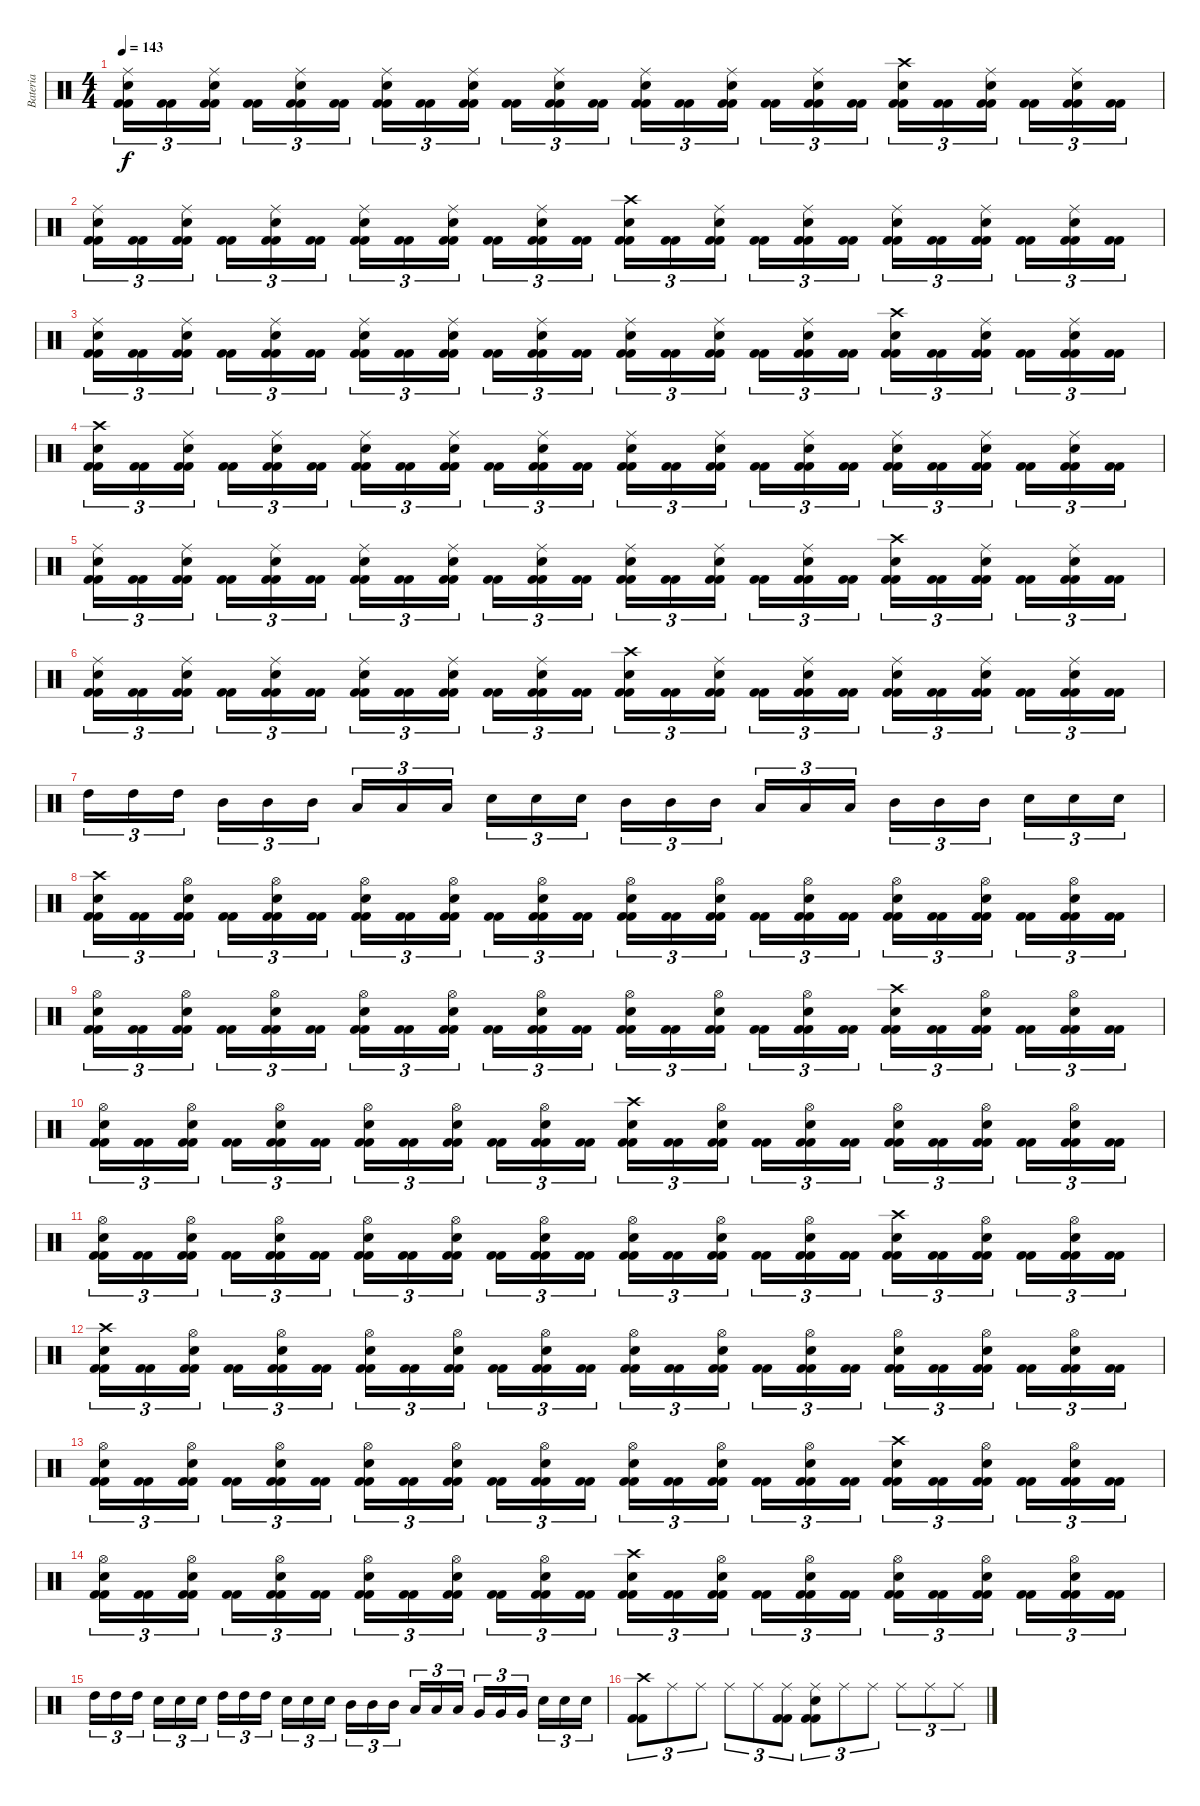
\track ("Bateria" "Bateria") {instrument percussion}
\staff {score}
\articulation defaults
\ts (4 4)
\tempo 143
\clef neutral
\ks c
("Kick (hit) 2" "Kick (hit) 2" "Snare (hit) 2" "Ride (middle)").16{tu (3 2) dy f} ("Kick (hit) 2" "Kick (hit) 2").16{tu (3 2)} ("Kick (hit) 2" "Kick (hit) 2" "Snare (hit) 2" "Ride (middle)").16{tu (3 2)} ("Kick (hit) 2" "Kick (hit) 2").16{tu (3 2)} ("Kick (hit) 2" "Kick (hit) 2" "Snare (hit) 2" "Ride (middle)").16{tu (3 2)} ("Kick (hit) 2" "Kick (hit) 2").16{tu (3 2)} ("Kick (hit) 2" "Kick (hit) 2" "Snare (hit) 2" "Ride (middle)").16{tu (3 2)} ("Kick (hit) 2" "Kick (hit) 2").16{tu (3 2)} ("Kick (hit) 2" "Kick (hit) 2" "Snare (hit) 2" "Ride (middle)").16{tu (3 2)} ("Kick (hit) 2" "Kick (hit) 2").16{tu (3 2)} ("Kick (hit) 2" "Kick (hit) 2" "Snare (hit) 2" "Ride (middle)").16{tu (3 2)} ("Kick (hit) 2" "Kick (hit) 2").16{tu (3 2)} ("Kick (hit) 2" "Kick (hit) 2" "Snare (hit) 2" "Ride (middle)").16{tu (3 2)} ("Kick (hit) 2" "Kick (hit) 2").16{tu (3 2)} ("Kick (hit) 2" "Kick (hit) 2" "Snare (hit) 2" "Ride (middle)").16{tu (3 2)} ("Kick (hit) 2" "Kick (hit) 2").16{tu (3 2)} ("Kick (hit) 2" "Kick (hit) 2" "Snare (hit) 2" "Ride (middle)").16{tu (3 2)} ("Kick (hit) 2" "Kick (hit) 2").16{tu (3 2)} ("Kick (hit) 2" "Kick (hit) 2" "Snare (hit) 2" "Crash high (hit)").16{tu (3 2)} ("Kick (hit) 2" "Kick (hit) 2").16{tu (3 2)} ("Kick (hit) 2" "Kick (hit) 2" "Snare (hit) 2" "Ride (middle)").16{tu (3 2)} ("Kick (hit) 2" "Kick (hit) 2").16{tu (3 2)} ("Kick (hit) 2" "Kick (hit) 2" "Snare (hit) 2" "Ride (middle)").16{tu (3 2)} ("Kick (hit) 2" "Kick (hit) 2").16{tu (3 2)} |
("Kick (hit) 2" "Kick (hit) 2" "Snare (hit) 2" "Ride (middle)").16{tu (3 2)} ("Kick (hit) 2" "Kick (hit) 2").16{tu (3 2)} ("Kick (hit) 2" "Kick (hit) 2" "Snare (hit) 2" "Ride (middle)").16{tu (3 2)} ("Kick (hit) 2" "Kick (hit) 2").16{tu (3 2)} ("Kick (hit) 2" "Kick (hit) 2" "Snare (hit) 2" "Ride (middle)").16{tu (3 2)} ("Kick (hit) 2" "Kick (hit) 2").16{tu (3 2)} ("Kick (hit) 2" "Kick (hit) 2" "Snare (hit) 2" "Ride (middle)").16{tu (3 2)} ("Kick (hit) 2" "Kick (hit) 2").16{tu (3 2)} ("Kick (hit) 2" "Kick (hit) 2" "Snare (hit) 2" "Ride (middle)").16{tu (3 2)} ("Kick (hit) 2" "Kick (hit) 2").16{tu (3 2)} ("Kick (hit) 2" "Kick (hit) 2" "Snare (hit) 2" "Ride (middle)").16{tu (3 2)} ("Kick (hit) 2" "Kick (hit) 2").16{tu (3 2)} ("Kick (hit) 2" "Kick (hit) 2" "Snare (hit) 2" "Crash high (hit)").16{tu (3 2)} ("Kick (hit) 2" "Kick (hit) 2").16{tu (3 2)} ("Kick (hit) 2" "Kick (hit) 2" "Snare (hit) 2" "Ride (middle)").16{tu (3 2)} ("Kick (hit) 2" "Kick (hit) 2").16{tu (3 2)} ("Kick (hit) 2" "Kick (hit) 2" "Snare (hit) 2" "Ride (middle)").16{tu (3 2)} ("Kick (hit) 2" "Kick (hit) 2").16{tu (3 2)} ("Kick (hit) 2" "Kick (hit) 2" "Snare (hit) 2" "Ride (middle)").16{tu (3 2)} ("Kick (hit) 2" "Kick (hit) 2").16{tu (3 2)} ("Kick (hit) 2" "Kick (hit) 2" "Snare (hit) 2" "Ride (middle)").16{tu (3 2)} ("Kick (hit) 2" "Kick (hit) 2").16{tu (3 2)} ("Kick (hit) 2" "Kick (hit) 2" "Snare (hit) 2" "Ride (middle)").16{tu (3 2)} ("Kick (hit) 2" "Kick (hit) 2").16{tu (3 2)} |
("Kick (hit) 2" "Kick (hit) 2" "Snare (hit) 2" "Ride (middle)").16{tu (3 2)} ("Kick (hit) 2" "Kick (hit) 2").16{tu (3 2)} ("Kick (hit) 2" "Kick (hit) 2" "Snare (hit) 2" "Ride (middle)").16{tu (3 2)} ("Kick (hit) 2" "Kick (hit) 2").16{tu (3 2)} ("Kick (hit) 2" "Kick (hit) 2" "Snare (hit) 2" "Ride (middle)").16{tu (3 2)} ("Kick (hit) 2" "Kick (hit) 2").16{tu (3 2)} ("Kick (hit) 2" "Kick (hit) 2" "Snare (hit) 2" "Ride (middle)").16{tu (3 2)} ("Kick (hit) 2" "Kick (hit) 2").16{tu (3 2)} ("Kick (hit) 2" "Kick (hit) 2" "Snare (hit) 2" "Ride (middle)").16{tu (3 2)} ("Kick (hit) 2" "Kick (hit) 2").16{tu (3 2)} ("Kick (hit) 2" "Kick (hit) 2" "Snare (hit) 2" "Ride (middle)").16{tu (3 2)} ("Kick (hit) 2" "Kick (hit) 2").16{tu (3 2)} ("Kick (hit) 2" "Kick (hit) 2" "Snare (hit) 2" "Ride (middle)").16{tu (3 2)} ("Kick (hit) 2" "Kick (hit) 2").16{tu (3 2)} ("Kick (hit) 2" "Kick (hit) 2" "Snare (hit) 2" "Ride (middle)").16{tu (3 2)} ("Kick (hit) 2" "Kick (hit) 2").16{tu (3 2)} ("Kick (hit) 2" "Kick (hit) 2" "Snare (hit) 2" "Ride (middle)").16{tu (3 2)} ("Kick (hit) 2" "Kick (hit) 2").16{tu (3 2)} ("Kick (hit) 2" "Kick (hit) 2" "Snare (hit) 2" "Crash high (hit)").16{tu (3 2)} ("Kick (hit) 2" "Kick (hit) 2").16{tu (3 2)} ("Kick (hit) 2" "Kick (hit) 2" "Snare (hit) 2" "Ride (middle)").16{tu (3 2)} ("Kick (hit) 2" "Kick (hit) 2").16{tu (3 2)} ("Kick (hit) 2" "Kick (hit) 2" "Snare (hit) 2" "Ride (middle)").16{tu (3 2)} ("Kick (hit) 2" "Kick (hit) 2").16{tu (3 2)} |
("Kick (hit) 2" "Kick (hit) 2" "Snare (hit) 2" "Crash high (hit)").16{tu (3 2)} ("Kick (hit) 2" "Kick (hit) 2").16{tu (3 2)} ("Kick (hit) 2" "Kick (hit) 2" "Snare (hit) 2" "Ride (middle)").16{tu (3 2)} ("Kick (hit) 2" "Kick (hit) 2").16{tu (3 2)} ("Kick (hit) 2" "Kick (hit) 2" "Snare (hit) 2" "Ride (middle)").16{tu (3 2)} ("Kick (hit) 2" "Kick (hit) 2").16{tu (3 2)} ("Kick (hit) 2" "Kick (hit) 2" "Snare (hit) 2" "Ride (middle)").16{tu (3 2)} ("Kick (hit) 2" "Kick (hit) 2").16{tu (3 2)} ("Kick (hit) 2" "Kick (hit) 2" "Snare (hit) 2" "Ride (middle)").16{tu (3 2)} ("Kick (hit) 2" "Kick (hit) 2").16{tu (3 2)} ("Kick (hit) 2" "Kick (hit) 2" "Snare (hit) 2" "Ride (middle)").16{tu (3 2)} ("Kick (hit) 2" "Kick (hit) 2").16{tu (3 2)} ("Kick (hit) 2" "Kick (hit) 2" "Snare (hit) 2" "Ride (middle)").16{tu (3 2)} ("Kick (hit) 2" "Kick (hit) 2").16{tu (3 2)} ("Kick (hit) 2" "Kick (hit) 2" "Snare (hit) 2" "Ride (middle)").16{tu (3 2)} ("Kick (hit) 2" "Kick (hit) 2").16{tu (3 2)} ("Kick (hit) 2" "Kick (hit) 2" "Snare (hit) 2" "Ride (middle)").16{tu (3 2)} ("Kick (hit) 2" "Kick (hit) 2").16{tu (3 2)} ("Kick (hit) 2" "Kick (hit) 2" "Snare (hit) 2" "Ride (middle)").16{tu (3 2)} ("Kick (hit) 2" "Kick (hit) 2").16{tu (3 2)} ("Kick (hit) 2" "Kick (hit) 2" "Snare (hit) 2" "Ride (middle)").16{tu (3 2)} ("Kick (hit) 2" "Kick (hit) 2").16{tu (3 2)} ("Kick (hit) 2" "Kick (hit) 2" "Snare (hit) 2" "Ride (middle)").16{tu (3 2)} ("Kick (hit) 2" "Kick (hit) 2").16{tu (3 2)} |
("Kick (hit) 2" "Kick (hit) 2" "Snare (hit) 2" "Ride (middle)").16{tu (3 2)} ("Kick (hit) 2" "Kick (hit) 2").16{tu (3 2)} ("Kick (hit) 2" "Kick (hit) 2" "Snare (hit) 2" "Ride (middle)").16{tu (3 2)} ("Kick (hit) 2" "Kick (hit) 2").16{tu (3 2)} ("Kick (hit) 2" "Kick (hit) 2" "Snare (hit) 2" "Ride (middle)").16{tu (3 2)} ("Kick (hit) 2" "Kick (hit) 2").16{tu (3 2)} ("Kick (hit) 2" "Kick (hit) 2" "Snare (hit) 2" "Ride (middle)").16{tu (3 2)} ("Kick (hit) 2" "Kick (hit) 2").16{tu (3 2)} ("Kick (hit) 2" "Kick (hit) 2" "Snare (hit) 2" "Ride (middle)").16{tu (3 2)} ("Kick (hit) 2" "Kick (hit) 2").16{tu (3 2)} ("Kick (hit) 2" "Kick (hit) 2" "Snare (hit) 2" "Ride (middle)").16{tu (3 2)} ("Kick (hit) 2" "Kick (hit) 2").16{tu (3 2)} ("Kick (hit) 2" "Kick (hit) 2" "Snare (hit) 2" "Ride (middle)").16{tu (3 2)} ("Kick (hit) 2" "Kick (hit) 2").16{tu (3 2)} ("Kick (hit) 2" "Kick (hit) 2" "Snare (hit) 2" "Ride (middle)").16{tu (3 2)} ("Kick (hit) 2" "Kick (hit) 2").16{tu (3 2)} ("Kick (hit) 2" "Kick (hit) 2" "Snare (hit) 2" "Ride (middle)").16{tu (3 2)} ("Kick (hit) 2" "Kick (hit) 2").16{tu (3 2)} ("Kick (hit) 2" "Kick (hit) 2" "Snare (hit) 2" "Crash high (hit)").16{tu (3 2)} ("Kick (hit) 2" "Kick (hit) 2").16{tu (3 2)} ("Kick (hit) 2" "Kick (hit) 2" "Snare (hit) 2" "Ride (middle)").16{tu (3 2)} ("Kick (hit) 2" "Kick (hit) 2").16{tu (3 2)} ("Kick (hit) 2" "Kick (hit) 2" "Snare (hit) 2" "Ride (middle)").16{tu (3 2)} ("Kick (hit) 2" "Kick (hit) 2").16{tu (3 2)} |
("Kick (hit) 2" "Kick (hit) 2" "Snare (hit) 2" "Ride (middle)").16{tu (3 2)} ("Kick (hit) 2" "Kick (hit) 2").16{tu (3 2)} ("Kick (hit) 2" "Kick (hit) 2" "Snare (hit) 2" "Ride (middle)").16{tu (3 2)} ("Kick (hit) 2" "Kick (hit) 2").16{tu (3 2)} ("Kick (hit) 2" "Kick (hit) 2" "Snare (hit) 2" "Ride (middle)").16{tu (3 2)} ("Kick (hit) 2" "Kick (hit) 2").16{tu (3 2)} ("Kick (hit) 2" "Kick (hit) 2" "Snare (hit) 2" "Ride (middle)").16{tu (3 2)} ("Kick (hit) 2" "Kick (hit) 2").16{tu (3 2)} ("Kick (hit) 2" "Kick (hit) 2" "Snare (hit) 2" "Ride (middle)").16{tu (3 2)} ("Kick (hit) 2" "Kick (hit) 2").16{tu (3 2)} ("Kick (hit) 2" "Kick (hit) 2" "Snare (hit) 2" "Ride (middle)").16{tu (3 2)} ("Kick (hit) 2" "Kick (hit) 2").16{tu (3 2)} ("Kick (hit) 2" "Kick (hit) 2" "Snare (hit) 2" "Crash high (hit)").16{tu (3 2)} ("Kick (hit) 2" "Kick (hit) 2").16{tu (3 2)} ("Kick (hit) 2" "Kick (hit) 2" "Snare (hit) 2" "Ride (middle)").16{tu (3 2)} ("Kick (hit) 2" "Kick (hit) 2").16{tu (3 2)} ("Kick (hit) 2" "Kick (hit) 2" "Snare (hit) 2" "Ride (middle)").16{tu (3 2)} ("Kick (hit) 2" "Kick (hit) 2").16{tu (3 2)} ("Kick (hit) 2" "Kick (hit) 2" "Snare (hit) 2" "Ride (middle)").16{tu (3 2)} ("Kick (hit) 2" "Kick (hit) 2").16{tu (3 2)} ("Kick (hit) 2" "Kick (hit) 2" "Snare (hit) 2" "Ride (middle)").16{tu (3 2)} ("Kick (hit) 2" "Kick (hit) 2").16{tu (3 2)} ("Kick (hit) 2" "Kick (hit) 2" "Snare (hit) 2" "Ride (middle)").16{tu (3 2)} ("Kick (hit) 2" "Kick (hit) 2").16{tu (3 2)} |
"High Tom (hit)".16{tu (3 2)} "High Tom (hit)".16{tu (3 2)} "High Tom (hit)".16{tu (3 2)} "Mid Tom (hit)".16{tu (3 2)} "Mid Tom (hit)".16{tu (3 2)} "Mid Tom (hit)".16{tu (3 2)} "Low Tom (hit)".16{tu (3 2)} "Low Tom (hit)".16{tu (3 2)} "Low Tom (hit)".16{tu (3 2)} "Snare (hit) 2".16{tu (3 2)} "Snare (hit) 2".16{tu (3 2)} "Snare (hit) 2".16{tu (3 2)} "Mid Tom (hit)".16{tu (3 2)} "Mid Tom (hit)".16{tu (3 2)} "Mid Tom (hit)".16{tu (3 2)} "Low Tom (hit)".16{tu (3 2)} "Low Tom (hit)".16{tu (3 2)} "Low Tom (hit)".16{tu (3 2)} "Mid Tom (hit)".16{tu (3 2)} "Mid Tom (hit)".16{tu (3 2)} "Mid Tom (hit)".16{tu (3 2)} "Snare (hit) 2".16{tu (3 2)} "Snare (hit) 2".16{tu (3 2)} "Snare (hit) 2".16{tu (3 2)} |
("Kick (hit) 2" "Kick (hit) 2" "Snare (hit) 2" "Crash high (hit)").16{tu (3 2)} ("Kick (hit) 2" "Kick (hit) 2").16{tu (3 2)} ("Kick (hit) 2" "Kick (hit) 2" "Snare (hit) 2" "Hi-Hat (open)").16{tu (3 2)} ("Kick (hit) 2" "Kick (hit) 2").16{tu (3 2)} ("Kick (hit) 2" "Kick (hit) 2" "Snare (hit) 2" "Hi-Hat (open)").16{tu (3 2)} ("Kick (hit) 2" "Kick (hit) 2").16{tu (3 2)} ("Kick (hit) 2" "Kick (hit) 2" "Snare (hit) 2" "Hi-Hat (open)").16{tu (3 2)} ("Kick (hit) 2" "Kick (hit) 2").16{tu (3 2)} ("Kick (hit) 2" "Kick (hit) 2" "Snare (hit) 2" "Hi-Hat (open)").16{tu (3 2)} ("Kick (hit) 2" "Kick (hit) 2").16{tu (3 2)} ("Kick (hit) 2" "Kick (hit) 2" "Snare (hit) 2" "Hi-Hat (open)").16{tu (3 2)} ("Kick (hit) 2" "Kick (hit) 2").16{tu (3 2)} ("Kick (hit) 2" "Kick (hit) 2" "Snare (hit) 2" "Hi-Hat (open)").16{tu (3 2)} ("Kick (hit) 2" "Kick (hit) 2").16{tu (3 2)} ("Kick (hit) 2" "Kick (hit) 2" "Snare (hit) 2" "Hi-Hat (open)").16{tu (3 2)} ("Kick (hit) 2" "Kick (hit) 2").16{tu (3 2)} ("Kick (hit) 2" "Kick (hit) 2" "Snare (hit) 2" "Hi-Hat (open)").16{tu (3 2)} ("Kick (hit) 2" "Kick (hit) 2").16{tu (3 2)} ("Kick (hit) 2" "Kick (hit) 2" "Snare (hit) 2" "Hi-Hat (open)").16{tu (3 2)} ("Kick (hit) 2" "Kick (hit) 2").16{tu (3 2)} ("Kick (hit) 2" "Kick (hit) 2" "Snare (hit) 2" "Hi-Hat (open)").16{tu (3 2)} ("Kick (hit) 2" "Kick (hit) 2").16{tu (3 2)} ("Kick (hit) 2" "Kick (hit) 2" "Snare (hit) 2" "Hi-Hat (open)").16{tu (3 2)} ("Kick (hit) 2" "Kick (hit) 2").16{tu (3 2)} |
("Kick (hit) 2" "Kick (hit) 2" "Snare (hit) 2" "Hi-Hat (open)").16{tu (3 2)} ("Kick (hit) 2" "Kick (hit) 2").16{tu (3 2)} ("Kick (hit) 2" "Kick (hit) 2" "Snare (hit) 2" "Hi-Hat (open)").16{tu (3 2)} ("Kick (hit) 2" "Kick (hit) 2").16{tu (3 2)} ("Kick (hit) 2" "Kick (hit) 2" "Snare (hit) 2" "Hi-Hat (open)").16{tu (3 2)} ("Kick (hit) 2" "Kick (hit) 2").16{tu (3 2)} ("Kick (hit) 2" "Kick (hit) 2" "Snare (hit) 2" "Hi-Hat (open)").16{tu (3 2)} ("Kick (hit) 2" "Kick (hit) 2").16{tu (3 2)} ("Kick (hit) 2" "Kick (hit) 2" "Snare (hit) 2" "Hi-Hat (open)").16{tu (3 2)} ("Kick (hit) 2" "Kick (hit) 2").16{tu (3 2)} ("Kick (hit) 2" "Kick (hit) 2" "Snare (hit) 2" "Hi-Hat (open)").16{tu (3 2)} ("Kick (hit) 2" "Kick (hit) 2").16{tu (3 2)} ("Kick (hit) 2" "Kick (hit) 2" "Snare (hit) 2" "Hi-Hat (open)").16{tu (3 2)} ("Kick (hit) 2" "Kick (hit) 2").16{tu (3 2)} ("Kick (hit) 2" "Kick (hit) 2" "Snare (hit) 2" "Hi-Hat (open)").16{tu (3 2)} ("Kick (hit) 2" "Kick (hit) 2").16{tu (3 2)} ("Kick (hit) 2" "Kick (hit) 2" "Snare (hit) 2" "Hi-Hat (open)").16{tu (3 2)} ("Kick (hit) 2" "Kick (hit) 2").16{tu (3 2)} ("Kick (hit) 2" "Kick (hit) 2" "Snare (hit) 2" "Crash high (hit)").16{tu (3 2)} ("Kick (hit) 2" "Kick (hit) 2").16{tu (3 2)} ("Kick (hit) 2" "Kick (hit) 2" "Snare (hit) 2" "Hi-Hat (open)").16{tu (3 2)} ("Kick (hit) 2" "Kick (hit) 2").16{tu (3 2)} ("Kick (hit) 2" "Kick (hit) 2" "Snare (hit) 2" "Hi-Hat (open)").16{tu (3 2)} ("Kick (hit) 2" "Kick (hit) 2").16{tu (3 2)} |
("Kick (hit) 2" "Kick (hit) 2" "Snare (hit) 2" "Hi-Hat (open)").16{tu (3 2)} ("Kick (hit) 2" "Kick (hit) 2").16{tu (3 2)} ("Kick (hit) 2" "Kick (hit) 2" "Snare (hit) 2" "Hi-Hat (open)").16{tu (3 2)} ("Kick (hit) 2" "Kick (hit) 2").16{tu (3 2)} ("Kick (hit) 2" "Kick (hit) 2" "Snare (hit) 2" "Hi-Hat (open)").16{tu (3 2)} ("Kick (hit) 2" "Kick (hit) 2").16{tu (3 2)} ("Kick (hit) 2" "Kick (hit) 2" "Snare (hit) 2" "Hi-Hat (open)").16{tu (3 2)} ("Kick (hit) 2" "Kick (hit) 2").16{tu (3 2)} ("Kick (hit) 2" "Kick (hit) 2" "Snare (hit) 2" "Hi-Hat (open)").16{tu (3 2)} ("Kick (hit) 2" "Kick (hit) 2").16{tu (3 2)} ("Kick (hit) 2" "Kick (hit) 2" "Snare (hit) 2" "Hi-Hat (open)").16{tu (3 2)} ("Kick (hit) 2" "Kick (hit) 2").16{tu (3 2)} ("Kick (hit) 2" "Kick (hit) 2" "Snare (hit) 2" "Crash high (hit)").16{tu (3 2)} ("Kick (hit) 2" "Kick (hit) 2").16{tu (3 2)} ("Kick (hit) 2" "Kick (hit) 2" "Snare (hit) 2" "Hi-Hat (open)").16{tu (3 2)} ("Kick (hit) 2" "Kick (hit) 2").16{tu (3 2)} ("Kick (hit) 2" "Kick (hit) 2" "Snare (hit) 2" "Hi-Hat (open)").16{tu (3 2)} ("Kick (hit) 2" "Kick (hit) 2").16{tu (3 2)} ("Kick (hit) 2" "Kick (hit) 2" "Snare (hit) 2" "Hi-Hat (open)").16{tu (3 2)} ("Kick (hit) 2" "Kick (hit) 2").16{tu (3 2)} ("Kick (hit) 2" "Kick (hit) 2" "Snare (hit) 2" "Hi-Hat (open)").16{tu (3 2)} ("Kick (hit) 2" "Kick (hit) 2").16{tu (3 2)} ("Kick (hit) 2" "Kick (hit) 2" "Snare (hit) 2" "Hi-Hat (open)").16{tu (3 2)} ("Kick (hit) 2" "Kick (hit) 2").16{tu (3 2)} |
("Kick (hit) 2" "Kick (hit) 2" "Snare (hit) 2" "Hi-Hat (open)").16{tu (3 2)} ("Kick (hit) 2" "Kick (hit) 2").16{tu (3 2)} ("Kick (hit) 2" "Kick (hit) 2" "Snare (hit) 2" "Hi-Hat (open)").16{tu (3 2)} ("Kick (hit) 2" "Kick (hit) 2").16{tu (3 2)} ("Kick (hit) 2" "Kick (hit) 2" "Snare (hit) 2" "Hi-Hat (open)").16{tu (3 2)} ("Kick (hit) 2" "Kick (hit) 2").16{tu (3 2)} ("Kick (hit) 2" "Kick (hit) 2" "Snare (hit) 2" "Hi-Hat (open)").16{tu (3 2)} ("Kick (hit) 2" "Kick (hit) 2").16{tu (3 2)} ("Kick (hit) 2" "Kick (hit) 2" "Snare (hit) 2" "Hi-Hat (open)").16{tu (3 2)} ("Kick (hit) 2" "Kick (hit) 2").16{tu (3 2)} ("Kick (hit) 2" "Kick (hit) 2" "Snare (hit) 2" "Hi-Hat (open)").16{tu (3 2)} ("Kick (hit) 2" "Kick (hit) 2").16{tu (3 2)} ("Kick (hit) 2" "Kick (hit) 2" "Snare (hit) 2" "Hi-Hat (open)").16{tu (3 2)} ("Kick (hit) 2" "Kick (hit) 2").16{tu (3 2)} ("Kick (hit) 2" "Kick (hit) 2" "Snare (hit) 2" "Hi-Hat (open)").16{tu (3 2)} ("Kick (hit) 2" "Kick (hit) 2").16{tu (3 2)} ("Kick (hit) 2" "Kick (hit) 2" "Snare (hit) 2" "Hi-Hat (open)").16{tu (3 2)} ("Kick (hit) 2" "Kick (hit) 2").16{tu (3 2)} ("Kick (hit) 2" "Kick (hit) 2" "Snare (hit) 2" "Crash high (hit)").16{tu (3 2)} ("Kick (hit) 2" "Kick (hit) 2").16{tu (3 2)} ("Kick (hit) 2" "Kick (hit) 2" "Snare (hit) 2" "Hi-Hat (open)").16{tu (3 2)} ("Kick (hit) 2" "Kick (hit) 2").16{tu (3 2)} ("Kick (hit) 2" "Kick (hit) 2" "Snare (hit) 2" "Hi-Hat (open)").16{tu (3 2)} ("Kick (hit) 2" "Kick (hit) 2").16{tu (3 2)} |
("Kick (hit) 2" "Kick (hit) 2" "Snare (hit) 2" "Crash high (hit)").16{tu (3 2)} ("Kick (hit) 2" "Kick (hit) 2").16{tu (3 2)} ("Kick (hit) 2" "Kick (hit) 2" "Snare (hit) 2" "Hi-Hat (open)").16{tu (3 2)} ("Kick (hit) 2" "Kick (hit) 2").16{tu (3 2)} ("Kick (hit) 2" "Kick (hit) 2" "Snare (hit) 2" "Hi-Hat (open)").16{tu (3 2)} ("Kick (hit) 2" "Kick (hit) 2").16{tu (3 2)} ("Kick (hit) 2" "Kick (hit) 2" "Snare (hit) 2" "Hi-Hat (open)").16{tu (3 2)} ("Kick (hit) 2" "Kick (hit) 2").16{tu (3 2)} ("Kick (hit) 2" "Kick (hit) 2" "Snare (hit) 2" "Hi-Hat (open)").16{tu (3 2)} ("Kick (hit) 2" "Kick (hit) 2").16{tu (3 2)} ("Kick (hit) 2" "Kick (hit) 2" "Snare (hit) 2" "Hi-Hat (open)").16{tu (3 2)} ("Kick (hit) 2" "Kick (hit) 2").16{tu (3 2)} ("Kick (hit) 2" "Kick (hit) 2" "Snare (hit) 2" "Hi-Hat (open)").16{tu (3 2)} ("Kick (hit) 2" "Kick (hit) 2").16{tu (3 2)} ("Kick (hit) 2" "Kick (hit) 2" "Snare (hit) 2" "Hi-Hat (open)").16{tu (3 2)} ("Kick (hit) 2" "Kick (hit) 2").16{tu (3 2)} ("Kick (hit) 2" "Kick (hit) 2" "Snare (hit) 2" "Hi-Hat (open)").16{tu (3 2)} ("Kick (hit) 2" "Kick (hit) 2").16{tu (3 2)} ("Kick (hit) 2" "Kick (hit) 2" "Snare (hit) 2" "Hi-Hat (open)").16{tu (3 2)} ("Kick (hit) 2" "Kick (hit) 2").16{tu (3 2)} ("Kick (hit) 2" "Kick (hit) 2" "Snare (hit) 2" "Hi-Hat (open)").16{tu (3 2)} ("Kick (hit) 2" "Kick (hit) 2").16{tu (3 2)} ("Kick (hit) 2" "Kick (hit) 2" "Snare (hit) 2" "Hi-Hat (open)").16{tu (3 2)} ("Kick (hit) 2" "Kick (hit) 2").16{tu (3 2)} |
("Kick (hit) 2" "Kick (hit) 2" "Snare (hit) 2" "Hi-Hat (open)").16{tu (3 2)} ("Kick (hit) 2" "Kick (hit) 2").16{tu (3 2)} ("Kick (hit) 2" "Kick (hit) 2" "Snare (hit) 2" "Hi-Hat (open)").16{tu (3 2)} ("Kick (hit) 2" "Kick (hit) 2").16{tu (3 2)} ("Kick (hit) 2" "Kick (hit) 2" "Snare (hit) 2" "Hi-Hat (open)").16{tu (3 2)} ("Kick (hit) 2" "Kick (hit) 2").16{tu (3 2)} ("Kick (hit) 2" "Kick (hit) 2" "Snare (hit) 2" "Hi-Hat (open)").16{tu (3 2)} ("Kick (hit) 2" "Kick (hit) 2").16{tu (3 2)} ("Kick (hit) 2" "Kick (hit) 2" "Snare (hit) 2" "Hi-Hat (open)").16{tu (3 2)} ("Kick (hit) 2" "Kick (hit) 2").16{tu (3 2)} ("Kick (hit) 2" "Kick (hit) 2" "Snare (hit) 2" "Hi-Hat (open)").16{tu (3 2)} ("Kick (hit) 2" "Kick (hit) 2").16{tu (3 2)} ("Kick (hit) 2" "Kick (hit) 2" "Snare (hit) 2" "Hi-Hat (open)").16{tu (3 2)} ("Kick (hit) 2" "Kick (hit) 2").16{tu (3 2)} ("Kick (hit) 2" "Kick (hit) 2" "Snare (hit) 2" "Hi-Hat (open)").16{tu (3 2)} ("Kick (hit) 2" "Kick (hit) 2").16{tu (3 2)} ("Kick (hit) 2" "Kick (hit) 2" "Snare (hit) 2" "Hi-Hat (open)").16{tu (3 2)} ("Kick (hit) 2" "Kick (hit) 2").16{tu (3 2)} ("Kick (hit) 2" "Kick (hit) 2" "Snare (hit) 2" "Crash high (hit)").16{tu (3 2)} ("Kick (hit) 2" "Kick (hit) 2").16{tu (3 2)} ("Kick (hit) 2" "Kick (hit) 2" "Snare (hit) 2" "Hi-Hat (open)").16{tu (3 2)} ("Kick (hit) 2" "Kick (hit) 2").16{tu (3 2)} ("Kick (hit) 2" "Kick (hit) 2" "Snare (hit) 2" "Hi-Hat (open)").16{tu (3 2)} ("Kick (hit) 2" "Kick (hit) 2").16{tu (3 2)} |
("Kick (hit) 2" "Kick (hit) 2" "Snare (hit) 2" "Hi-Hat (open)").16{tu (3 2)} ("Kick (hit) 2" "Kick (hit) 2").16{tu (3 2)} ("Kick (hit) 2" "Kick (hit) 2" "Snare (hit) 2" "Hi-Hat (open)").16{tu (3 2)} ("Kick (hit) 2" "Kick (hit) 2").16{tu (3 2)} ("Kick (hit) 2" "Kick (hit) 2" "Snare (hit) 2" "Hi-Hat (open)").16{tu (3 2)} ("Kick (hit) 2" "Kick (hit) 2").16{tu (3 2)} ("Kick (hit) 2" "Kick (hit) 2" "Snare (hit) 2" "Hi-Hat (open)").16{tu (3 2)} ("Kick (hit) 2" "Kick (hit) 2").16{tu (3 2)} ("Kick (hit) 2" "Kick (hit) 2" "Snare (hit) 2" "Hi-Hat (open)").16{tu (3 2)} ("Kick (hit) 2" "Kick (hit) 2").16{tu (3 2)} ("Kick (hit) 2" "Kick (hit) 2" "Snare (hit) 2" "Hi-Hat (open)").16{tu (3 2)} ("Kick (hit) 2" "Kick (hit) 2").16{tu (3 2)} ("Kick (hit) 2" "Kick (hit) 2" "Snare (hit) 2" "Crash high (hit)").16{tu (3 2)} ("Kick (hit) 2" "Kick (hit) 2").16{tu (3 2)} ("Kick (hit) 2" "Kick (hit) 2" "Snare (hit) 2" "Hi-Hat (open)").16{tu (3 2)} ("Kick (hit) 2" "Kick (hit) 2").16{tu (3 2)} ("Kick (hit) 2" "Kick (hit) 2" "Snare (hit) 2" "Hi-Hat (open)").16{tu (3 2)} ("Kick (hit) 2" "Kick (hit) 2").16{tu (3 2)} ("Kick (hit) 2" "Kick (hit) 2" "Snare (hit) 2" "Hi-Hat (open)").16{tu (3 2)} ("Kick (hit) 2" "Kick (hit) 2").16{tu (3 2)} ("Kick (hit) 2" "Kick (hit) 2" "Snare (hit) 2" "Hi-Hat (open)").16{tu (3 2)} ("Kick (hit) 2" "Kick (hit) 2").16{tu (3 2)} ("Kick (hit) 2" "Kick (hit) 2" "Snare (hit) 2" "Hi-Hat (open)").16{tu (3 2)} ("Kick (hit) 2" "Kick (hit) 2").16{tu (3 2)} |
"High Tom (hit)".16{tu (3 2)} "High Tom (hit)".16{tu (3 2)} "High Tom (hit)".16{tu (3 2)} "Snare (hit) 2".16{tu (3 2)} "Snare (hit) 2".16{tu (3 2)} "Snare (hit) 2".16{tu (3 2)} "High Tom (hit)".16{tu (3 2)} "High Tom (hit)".16{tu (3 2)} "High Tom (hit)".16{tu (3 2)} "Snare (hit) 2".16{tu (3 2)} "Snare (hit) 2".16{tu (3 2)} "Snare (hit) 2".16{tu (3 2)} "Mid Tom (hit)".16{tu (3 2)} "Mid Tom (hit)".16{tu (3 2)} "Mid Tom (hit)".16{tu (3 2)} "Low Tom (hit)".16{tu (3 2)} "Low Tom (hit)".16{tu (3 2)} "Low Tom (hit)".16{tu (3 2)} "Very Low Tom (hit)".16{tu (3 2)} "Very Low Tom (hit)".16{tu (3 2)} "Very Low Tom (hit)".16{tu (3 2)} "Snare (hit) 2".16{tu (3 2)} "Snare (hit) 2".16{tu (3 2)} "Snare (hit) 2".16{tu (3 2)} |
("Kick (hit) 2" "Kick (hit) 2" "Crash high (hit)").8{tu (3 2)} "Ride (middle)".8{tu (3 2)} "Ride (middle)".8{tu (3 2)} "Ride (middle)".8{tu (3 2)} "Ride (middle)".8{tu (3 2)} ("Kick (hit) 2" "Kick (hit) 2" "Ride (middle)").8{tu (3 2)} ("Kick (hit) 2" "Kick (hit) 2" "Snare (hit) 2" "Ride (middle)").8{tu (3 2)} "Ride (middle)".8{tu (3 2)} "Ride (middle)".8{tu (3 2)} "Ride (middle)".8{tu (3 2)} "Ride (middle)".8{tu (3 2)} "Ride (middle)".8{tu (3 2)}
